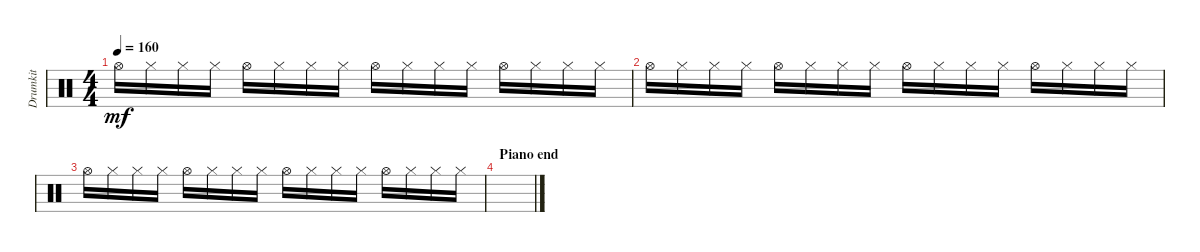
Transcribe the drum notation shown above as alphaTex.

\track ("Drumkit" "Drumkit") {instrument percussion}
\staff {score}
\articulation defaults
\ts (4 4)
\tempo 160
\clef neutral
\ks c "Hi-Hat (open)".16{dy mf} "Hi-Hat (closed)".16 "Hi-Hat (closed)".16 "Hi-Hat (closed)".16 "Hi-Hat (open)".16 "Hi-Hat (closed)".16 "Hi-Hat (closed)".16 "Hi-Hat (closed)".16 "Hi-Hat (open)".16 "Hi-Hat (closed)".16 "Hi-Hat (closed)".16 "Hi-Hat (closed)".16 "Hi-Hat (open)".16 "Hi-Hat (closed)".16 "Hi-Hat (closed)".16 "Hi-Hat (closed)".16
|
"Hi-Hat (open)".16 "Hi-Hat (closed)".16 "Hi-Hat (closed)".16 "Hi-Hat (closed)".16 "Hi-Hat (open)".16 "Hi-Hat (closed)".16 "Hi-Hat (closed)".16 "Hi-Hat (closed)".16 "Hi-Hat (open)".16 "Hi-Hat (closed)".16 "Hi-Hat (closed)".16 "Hi-Hat (closed)".16 "Hi-Hat (open)".16 "Hi-Hat (closed)".16 "Hi-Hat (closed)".16 "Hi-Hat (closed)".16 |
"Hi-Hat (open)".16 "Hi-Hat (closed)".16 "Hi-Hat (closed)".16 "Hi-Hat (closed)".16 "Hi-Hat (open)".16 "Hi-Hat (closed)".16 "Hi-Hat (closed)".16 "Hi-Hat (closed)".16 "Hi-Hat (open)".16 "Hi-Hat (closed)".16 "Hi-Hat (closed)".16 "Hi-Hat (closed)".16 "Hi-Hat (open)".16 "Hi-Hat (closed)".16 "Hi-Hat (closed)".16 "Hi-Hat (closed)".16 |
\section ("" "Piano end")
